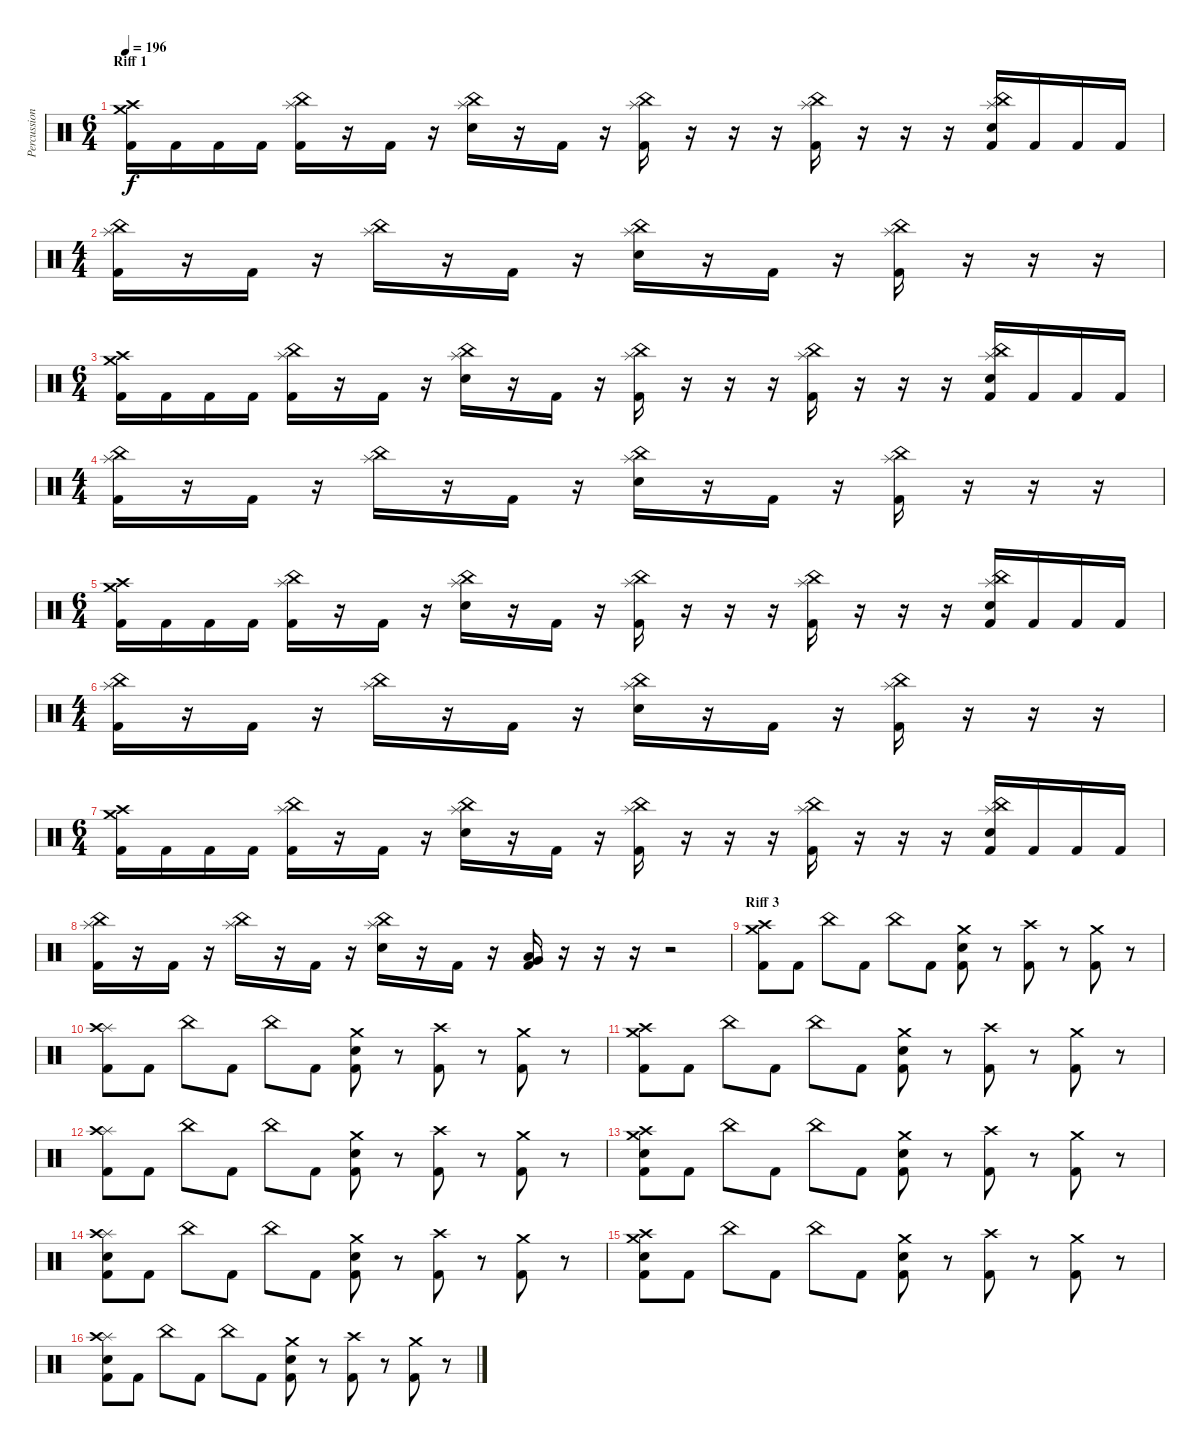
\track ("Percussion" "Percussion") {instrument percussion}
\staff {score}
\articulation defaults
\ts (6 4)
\section ("" "Riff 1")
\tempo 196
\clef neutral
\ks c
("Crash medium (hit)" "Crash high (hit)" "Kick (hit) 2").16{dy f} "Kick (hit) 2".16 "Kick (hit) 2".16 "Kick (hit) 2".16 ("Splash (hit)" "China (hit)" "Kick (hit) 2").16 r.16 "Kick (hit) 2".16 r.16 ("Splash (hit)" "China (hit)" "Electric Snare (hit)").16 r.16 "Kick (hit) 2".16 r.16 ("Splash (hit)" "China (hit)" "Kick (hit) 2").16 r.16 r.16 r.16 ("Splash (hit)" "China (hit)" "Kick (hit) 2").16 r.16 r.16 r.16 ("Splash (hit)" "China (hit)" "Electric Snare (hit)" "Kick (hit) 2").16 "Kick (hit) 2".16 "Kick (hit) 2".16 "Kick (hit) 2".16 |
\ts (4 4)
("Splash (hit)" "China (hit)" "Kick (hit) 2").16 r.16 "Kick (hit) 2".16 r.16 ("Splash (hit)" "China (hit)").16 r.16 "Kick (hit) 2".16 r.16 ("Splash (hit)" "China (hit)" "Electric Snare (hit)").16 r.16 "Kick (hit) 2".16 r.16 ("Splash (hit)" "China (hit)" "Kick (hit) 2").16 r.16 r.16 r.16 |
\ts (6 4)
("Crash medium (hit)" "Crash high (hit)" "Kick (hit) 2").16 "Kick (hit) 2".16 "Kick (hit) 2".16 "Kick (hit) 2".16 ("Splash (hit)" "China (hit)" "Kick (hit) 2").16 r.16 "Kick (hit) 2".16 r.16 ("Splash (hit)" "China (hit)" "Electric Snare (hit)").16 r.16 "Kick (hit) 2".16 r.16 ("Splash (hit)" "China (hit)" "Kick (hit) 2").16 r.16 r.16 r.16 ("Splash (hit)" "China (hit)" "Kick (hit) 2").16 r.16 r.16 r.16 ("Splash (hit)" "China (hit)" "Electric Snare (hit)" "Kick (hit) 2").16 "Kick (hit) 2".16 "Kick (hit) 2".16 "Kick (hit) 2".16 |
\ts (4 4)
("Splash (hit)" "China (hit)" "Kick (hit) 2").16 r.16 "Kick (hit) 2".16 r.16 ("Splash (hit)" "China (hit)").16 r.16 "Kick (hit) 2".16 r.16 ("Splash (hit)" "China (hit)" "Electric Snare (hit)").16 r.16 "Kick (hit) 2".16 r.16 ("Splash (hit)" "China (hit)" "Kick (hit) 2").16 r.16 r.16 r.16 |
\ts (6 4)
("Crash medium (hit)" "Crash high (hit)" "Kick (hit) 2").16 "Kick (hit) 2".16 "Kick (hit) 2".16 "Kick (hit) 2".16 ("Splash (hit)" "China (hit)" "Kick (hit) 2").16 r.16 "Kick (hit) 2".16 r.16 ("Splash (hit)" "China (hit)" "Electric Snare (hit)").16 r.16 "Kick (hit) 2".16 r.16 ("Splash (hit)" "China (hit)" "Kick (hit) 2").16 r.16 r.16 r.16 ("Splash (hit)" "China (hit)" "Kick (hit) 2").16 r.16 r.16 r.16 ("Splash (hit)" "China (hit)" "Electric Snare (hit)" "Kick (hit) 2").16 "Kick (hit) 2".16 "Kick (hit) 2".16 "Kick (hit) 2".16 |
\ts (4 4)
("Splash (hit)" "China (hit)" "Kick (hit) 2").16 r.16 "Kick (hit) 2".16 r.16 ("Splash (hit)" "China (hit)").16 r.16 "Kick (hit) 2".16 r.16 ("Splash (hit)" "China (hit)" "Electric Snare (hit)").16 r.16 "Kick (hit) 2".16 r.16 ("Splash (hit)" "China (hit)" "Kick (hit) 2").16 r.16 r.16 r.16 |
\ts (6 4)
("Crash medium (hit)" "Crash high (hit)" "Kick (hit) 2").16 "Kick (hit) 2".16 "Kick (hit) 2".16 "Kick (hit) 2".16 ("Splash (hit)" "China (hit)" "Kick (hit) 2").16 r.16 "Kick (hit) 2".16 r.16 ("Splash (hit)" "China (hit)" "Electric Snare (hit)").16 r.16 "Kick (hit) 2".16 r.16 ("Splash (hit)" "China (hit)" "Kick (hit) 2").16 r.16 r.16 r.16 ("Splash (hit)" "China (hit)" "Kick (hit) 2").16 r.16 r.16 r.16 ("Splash (hit)" "China (hit)" "Electric Snare (hit)" "Kick (hit) 2").16 "Kick (hit) 2".16 "Kick (hit) 2".16 "Kick (hit) 2".16 |
("Splash (hit)" "China (hit)" "Kick (hit) 2").16 r.16 "Kick (hit) 2".16 r.16 ("Splash (hit)" "China (hit)").16 r.16 "Kick (hit) 2".16 r.16 ("Splash (hit)" "China (hit)" "Electric Snare (hit)").16 r.16 "Kick (hit) 2".16 r.16 ("Very Low Tom (hit)" "Low Floor Tom (hit)" "Kick (hit) 2").16 r.16 r.16 r.16 r.2 |
\section ("" "Riff 3")
("Crash medium (hit)" "Crash high (hit)" "Kick (hit) 2").8 "Kick (hit) 2".8 "China (hit)".8 "Kick (hit) 2".8 "China (hit)".8 "Kick (hit) 2".8 ("Crash medium (hit)" "Electric Snare (hit)" "Kick (hit) 2").8 r.8 ("Crash high (hit)" "Kick (hit) 2").8 r.8 ("Crash medium (hit)" "Kick (hit) 2").8 r.8 |
("Splash (hit)" "Crash high (hit)" "Kick (hit) 2").8 "Kick (hit) 2".8 "China (hit)".8 "Kick (hit) 2".8 "China (hit)".8 "Kick (hit) 2".8 ("Crash medium (hit)" "Electric Snare (hit)" "Kick (hit) 2").8 r.8 ("Crash high (hit)" "Kick (hit) 2").8 r.8 ("Crash medium (hit)" "Kick (hit) 2").8 r.8 |
("Crash medium (hit)" "Crash high (hit)" "Kick (hit) 2").8 "Kick (hit) 2".8 "China (hit)".8 "Kick (hit) 2".8 "China (hit)".8 "Kick (hit) 2".8 ("Crash medium (hit)" "Electric Snare (hit)" "Kick (hit) 2").8 r.8 ("Crash high (hit)" "Kick (hit) 2").8 r.8 ("Crash medium (hit)" "Kick (hit) 2").8 r.8 |
("Splash (hit)" "Crash high (hit)" "Kick (hit) 2").8 "Kick (hit) 2".8 "China (hit)".8 "Kick (hit) 2".8 "China (hit)".8 "Kick (hit) 2".8 ("Crash medium (hit)" "Electric Snare (hit)" "Kick (hit) 2").8 r.8 ("Crash high (hit)" "Kick (hit) 2").8 r.8 ("Crash medium (hit)" "Kick (hit) 2").8 r.8 |
("Crash medium (hit)" "Crash high (hit)" "Electric Snare (hit)" "Kick (hit) 2").8 "Kick (hit) 2".8 "China (hit)".8 "Kick (hit) 2".8 "China (hit)".8 "Kick (hit) 2".8 ("Crash medium (hit)" "Electric Snare (hit)" "Kick (hit) 2").8 r.8 ("Crash high (hit)" "Kick (hit) 2").8 r.8 ("Crash medium (hit)" "Kick (hit) 2").8 r.8 |
("Splash (hit)" "Crash high (hit)" "Electric Snare (hit)" "Kick (hit) 2").8 "Kick (hit) 2".8 "China (hit)".8 "Kick (hit) 2".8 "China (hit)".8 "Kick (hit) 2".8 ("Crash medium (hit)" "Electric Snare (hit)" "Kick (hit) 2").8 r.8 ("Crash high (hit)" "Kick (hit) 2").8 r.8 ("Crash medium (hit)" "Kick (hit) 2").8 r.8 |
("Crash medium (hit)" "Crash high (hit)" "Electric Snare (hit)" "Kick (hit) 2").8 "Kick (hit) 2".8 "China (hit)".8 "Kick (hit) 2".8 "China (hit)".8 "Kick (hit) 2".8 ("Crash medium (hit)" "Electric Snare (hit)" "Kick (hit) 2").8 r.8 ("Crash high (hit)" "Kick (hit) 2").8 r.8 ("Crash medium (hit)" "Kick (hit) 2").8 r.8 |
("Splash (hit)" "Crash high (hit)" "Electric Snare (hit)" "Kick (hit) 2").8 "Kick (hit) 2".8 "China (hit)".8 "Kick (hit) 2".8 "China (hit)".8 "Kick (hit) 2".8 ("Crash medium (hit)" "Electric Snare (hit)" "Kick (hit) 2").8 r.8 ("Crash high (hit)" "Kick (hit) 2").8 r.8 ("Crash medium (hit)" "Kick (hit) 2").8 r.8
